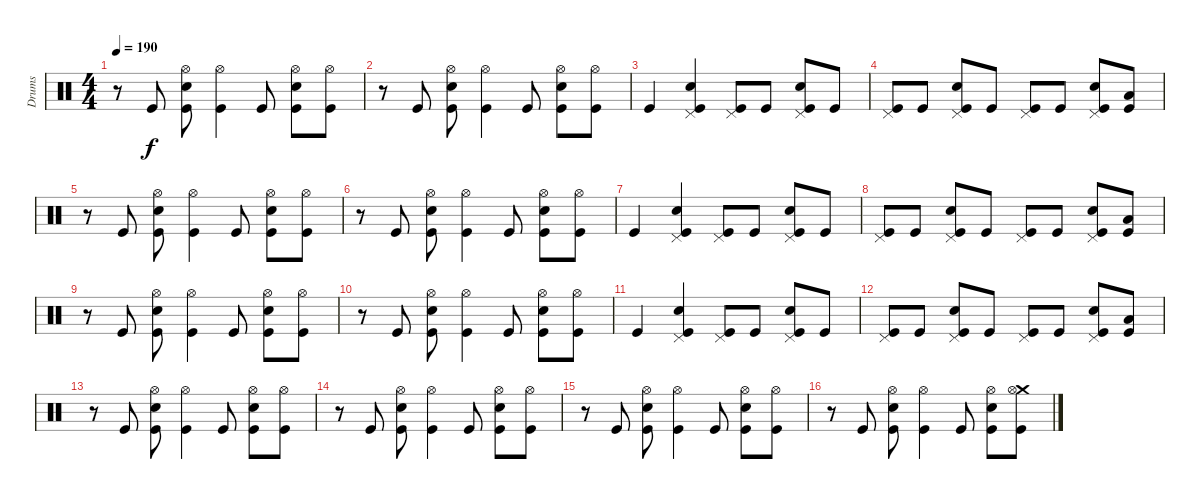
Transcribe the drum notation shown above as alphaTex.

\track ("Drums" "Drums") {instrument percussion}
\staff {score}
\articulation defaults
\ts (4 4)
\tempo 190
\clef neutral
\ks c
r.8{dy f} "Kick (hit)".8 ("Snare (hit) 2" "Kick (hit)" "Hi-Hat (open)").8 ("Kick (hit)" "Hi-Hat (open)").4 "Kick (hit)".8 ("Snare (hit) 2" "Kick (hit)" "Hi-Hat (open)").8 ("Kick (hit)" "Hi-Hat (open)").8 |
r.8 "Kick (hit)".8 ("Snare (hit) 2" "Kick (hit)" "Hi-Hat (open)").8 ("Kick (hit)" "Hi-Hat (open)").4 "Kick (hit)".8 ("Snare (hit) 2" "Kick (hit)" "Hi-Hat (open)").8 ("Kick (hit)" "Hi-Hat (open)").8 |
"Kick (hit)".4 ("Snare (hit) 2" "Kick (hit)" "Pedal Hi-Hat (hit)").4 ("Kick (hit)" "Pedal Hi-Hat (hit)").8 "Kick (hit)".8 ("Snare (hit) 2" "Kick (hit)" "Pedal Hi-Hat (hit)").8 "Kick (hit)".8 |
("Kick (hit)" "Pedal Hi-Hat (hit)").8 "Kick (hit)".8 ("Snare (hit) 2" "Kick (hit)" "Pedal Hi-Hat (hit)").8 "Kick (hit)".8 ("Kick (hit)" "Pedal Hi-Hat (hit)").8 "Kick (hit)".8 ("Snare (hit) 2" "Kick (hit)" "Pedal Hi-Hat (hit)").8 ("Low Tom (hit)" "Kick (hit)").8 |
r.8 "Kick (hit)".8 ("Snare (hit) 2" "Kick (hit)" "Hi-Hat (open)").8 ("Kick (hit)" "Hi-Hat (open)").4 "Kick (hit)".8 ("Snare (hit) 2" "Kick (hit)" "Hi-Hat (open)").8 ("Kick (hit)" "Hi-Hat (open)").8 |
r.8 "Kick (hit)".8 ("Snare (hit) 2" "Kick (hit)" "Hi-Hat (open)").8 ("Kick (hit)" "Hi-Hat (open)").4 "Kick (hit)".8 ("Snare (hit) 2" "Kick (hit)" "Hi-Hat (open)").8 ("Kick (hit)" "Hi-Hat (open)").8 |
"Kick (hit)".4 ("Snare (hit) 2" "Kick (hit)" "Pedal Hi-Hat (hit)").4 ("Kick (hit)" "Pedal Hi-Hat (hit)").8 "Kick (hit)".8 ("Snare (hit) 2" "Kick (hit)" "Pedal Hi-Hat (hit)").8 "Kick (hit)".8 |
("Kick (hit)" "Pedal Hi-Hat (hit)").8 "Kick (hit)".8 ("Snare (hit) 2" "Kick (hit)" "Pedal Hi-Hat (hit)").8 "Kick (hit)".8 ("Kick (hit)" "Pedal Hi-Hat (hit)").8 "Kick (hit)".8 ("Snare (hit) 2" "Kick (hit)" "Pedal Hi-Hat (hit)").8 ("Low Tom (hit)" "Kick (hit)").8 |
r.8 "Kick (hit)".8 ("Snare (hit) 2" "Kick (hit)" "Hi-Hat (open)").8 ("Kick (hit)" "Hi-Hat (open)").4 "Kick (hit)".8 ("Snare (hit) 2" "Kick (hit)" "Hi-Hat (open)").8 ("Kick (hit)" "Hi-Hat (open)").8 |
r.8 "Kick (hit)".8 ("Snare (hit) 2" "Kick (hit)" "Hi-Hat (open)").8 ("Kick (hit)" "Hi-Hat (open)").4 "Kick (hit)".8 ("Snare (hit) 2" "Kick (hit)" "Hi-Hat (open)").8 ("Kick (hit)" "Hi-Hat (open)").8 |
"Kick (hit)".4 ("Snare (hit) 2" "Kick (hit)" "Pedal Hi-Hat (hit)").4 ("Kick (hit)" "Pedal Hi-Hat (hit)").8 "Kick (hit)".8 ("Snare (hit) 2" "Kick (hit)" "Pedal Hi-Hat (hit)").8 "Kick (hit)".8 |
("Kick (hit)" "Pedal Hi-Hat (hit)").8 "Kick (hit)".8 ("Snare (hit) 2" "Kick (hit)" "Pedal Hi-Hat (hit)").8 "Kick (hit)".8 ("Kick (hit)" "Pedal Hi-Hat (hit)").8 "Kick (hit)".8 ("Snare (hit) 2" "Kick (hit)" "Pedal Hi-Hat (hit)").8 ("Low Tom (hit)" "Kick (hit)").8 |
r.8 "Kick (hit)".8 ("Snare (hit) 2" "Kick (hit)" "Hi-Hat (open)").8 ("Kick (hit)" "Hi-Hat (open)").4 "Kick (hit)".8 ("Snare (hit) 2" "Kick (hit)" "Hi-Hat (open)").8 ("Kick (hit)" "Hi-Hat (open)").8 |
r.8 "Kick (hit)".8 ("Snare (hit) 2" "Kick (hit)" "Hi-Hat (open)").8 ("Kick (hit)" "Hi-Hat (open)").4 "Kick (hit)".8 ("Snare (hit) 2" "Kick (hit)" "Hi-Hat (open)").8 ("Kick (hit)" "Hi-Hat (open)").8 |
r.8 "Kick (hit)".8 ("Snare (hit) 2" "Kick (hit)" "Hi-Hat (open)").8 ("Kick (hit)" "Hi-Hat (open)").4 "Kick (hit)".8 ("Snare (hit) 2" "Kick (hit)" "Hi-Hat (open)").8 ("Kick (hit)" "Hi-Hat (open)").8 |
r.8 "Kick (hit)".8 ("Snare (hit) 2" "Kick (hit)" "Hi-Hat (open)").8 ("Kick (hit)" "Hi-Hat (open)").4 "Kick (hit)".8 ("Snare (hit) 2" "Kick (hit)" "Hi-Hat (open)").8 ("Crash medium (hit)" "Kick (hit)" "Hi-Hat (open)").8
